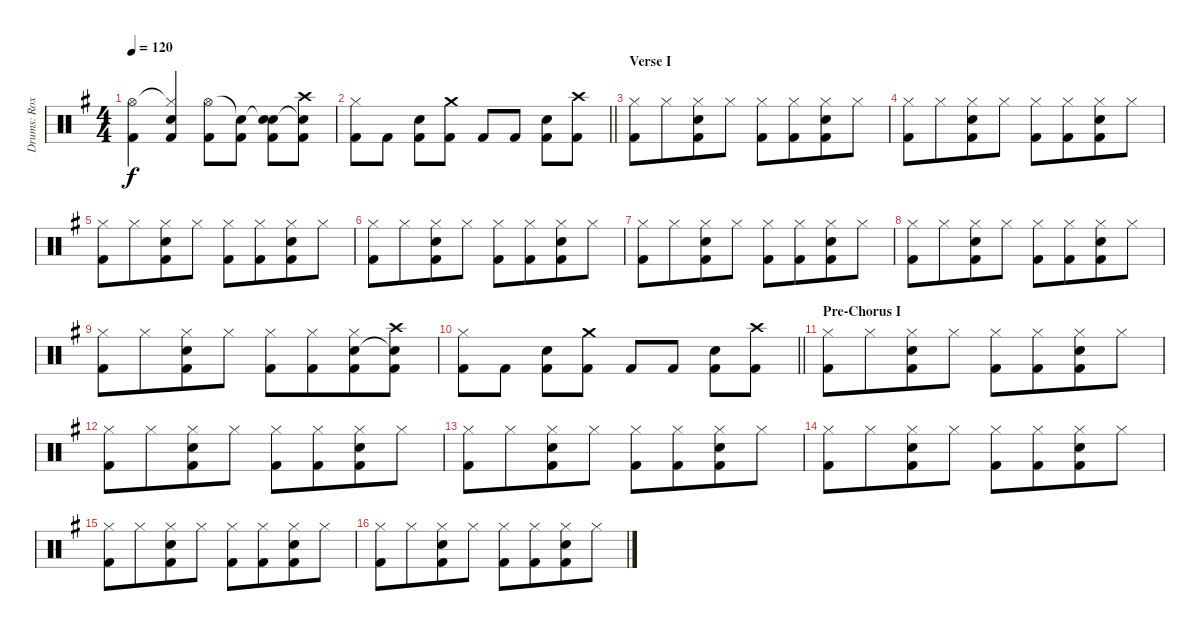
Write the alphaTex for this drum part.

\track ("Drums: Roxy" "Drums: Rox") {instrument percussion}
\staff {score}
\articulation defaults
\ts (4 4)
\tempo 120
\clef neutral
\ks g
("Hi-Hat (open)" "Kick (hit) 2").4{dy f} ("Hi-Hat (closed)"{t} "Snare (hit) 2" "Kick (hit) 2").4 ("Hi-Hat (open)" "Kick (hit) 2").8 ("Snare (hit)"{t} "Kick (hit) 2").8 ("Snare (hit)"{t} "Snare (hit) 2" "Kick (hit) 2").8 ("Crash high (hit)" "Snare (hit)"{t} "Kick (hit) 2").8 |
\barLineRight lightlight
("Hi-Hat (closed)" "Kick (hit) 2").8 "Kick (hit) 2".8 ("Snare (hit) 2" "Kick (hit) 2").8 ("Crash medium (hit)" "Kick (hit) 2").8 "Kick (hit) 2".8 "Kick (hit) 2".8 ("Snare (hit) 2" "Kick (hit) 2").8 ("Crash high (hit)" "Kick (hit) 2").8 |
\section ("" "Verse I")
("Hi-Hat (closed)" "Kick (hit) 2").8 "Hi-Hat (closed)".8{beam merge} ("Hi-Hat (closed)" "Snare (hit) 2" "Kick (hit) 2").8 "Hi-Hat (closed)".8 ("Hi-Hat (closed)" "Kick (hit) 2").8 ("Hi-Hat (closed)" "Kick (hit) 2").8{beam merge} ("Hi-Hat (closed)" "Snare (hit) 2" "Kick (hit) 2").8 "Hi-Hat (closed)".8 |
("Hi-Hat (closed)" "Kick (hit) 2").8 "Hi-Hat (closed)".8{beam merge} ("Hi-Hat (closed)" "Snare (hit) 2" "Kick (hit) 2").8 "Hi-Hat (closed)".8 ("Hi-Hat (closed)" "Kick (hit) 2").8 ("Hi-Hat (closed)" "Kick (hit) 2").8{beam merge} ("Hi-Hat (closed)" "Snare (hit) 2" "Kick (hit) 2").8 "Hi-Hat (closed)".8 |
("Hi-Hat (closed)" "Kick (hit) 2").8 "Hi-Hat (closed)".8{beam merge} ("Hi-Hat (closed)" "Snare (hit) 2" "Kick (hit) 2").8 "Hi-Hat (closed)".8 ("Hi-Hat (closed)" "Kick (hit) 2").8 ("Hi-Hat (closed)" "Kick (hit) 2").8{beam merge} ("Hi-Hat (closed)" "Snare (hit) 2" "Kick (hit) 2").8 "Hi-Hat (closed)".8 |
("Hi-Hat (closed)" "Kick (hit) 2").8 "Hi-Hat (closed)".8{beam merge} ("Hi-Hat (closed)" "Snare (hit) 2" "Kick (hit) 2").8 "Hi-Hat (closed)".8 ("Hi-Hat (closed)" "Kick (hit) 2").8 ("Hi-Hat (closed)" "Kick (hit) 2").8{beam merge} ("Hi-Hat (closed)" "Snare (hit) 2" "Kick (hit) 2").8 "Hi-Hat (closed)".8 |
("Hi-Hat (closed)" "Kick (hit) 2").8 "Hi-Hat (closed)".8{beam merge} ("Hi-Hat (closed)" "Snare (hit) 2" "Kick (hit) 2").8 "Hi-Hat (closed)".8 ("Hi-Hat (closed)" "Kick (hit) 2").8 ("Hi-Hat (closed)" "Kick (hit) 2").8{beam merge} ("Hi-Hat (closed)" "Snare (hit) 2" "Kick (hit) 2").8 "Hi-Hat (closed)".8 |
("Hi-Hat (closed)" "Kick (hit) 2").8 "Hi-Hat (closed)".8{beam merge} ("Hi-Hat (closed)" "Snare (hit) 2" "Kick (hit) 2").8 "Hi-Hat (closed)".8 ("Hi-Hat (closed)" "Kick (hit) 2").8 ("Hi-Hat (closed)" "Kick (hit) 2").8{beam merge} ("Hi-Hat (closed)" "Snare (hit) 2" "Kick (hit) 2").8 "Hi-Hat (closed)".8 |
("Hi-Hat (closed)" "Kick (hit) 2").8 "Hi-Hat (closed)".8{beam merge} ("Hi-Hat (closed)" "Snare (hit) 2" "Kick (hit) 2").8 "Hi-Hat (closed)".8 ("Hi-Hat (closed)" "Kick (hit) 2").8 ("Hi-Hat (closed)" "Kick (hit) 2").8{beam merge} ("Hi-Hat (closed)" "Snare (hit) 2" "Kick (hit) 2").8 ("Crash high (hit)" "Snare (hit)"{t} "Kick (hit) 2").8 |
\barLineRight lightlight
("Hi-Hat (closed)" "Kick (hit) 2").8 "Kick (hit) 2".8 ("Snare (hit) 2" "Kick (hit) 2").8 ("Crash medium (hit)" "Kick (hit) 2").8 "Kick (hit) 2".8 "Kick (hit) 2".8 ("Snare (hit) 2" "Kick (hit) 2").8 ("Crash high (hit)" "Kick (hit) 2").8 |
\section ("" "Pre-Chorus I")
("Hi-Hat (closed)" "Kick (hit) 2").8 "Hi-Hat (closed)".8{beam merge} ("Hi-Hat (closed)" "Snare (hit) 2" "Kick (hit) 2").8 "Hi-Hat (closed)".8 ("Hi-Hat (closed)" "Kick (hit) 2").8 ("Hi-Hat (closed)" "Kick (hit) 2").8{beam merge} ("Hi-Hat (closed)" "Snare (hit) 2" "Kick (hit) 2").8 "Hi-Hat (closed)".8 |
("Hi-Hat (closed)" "Kick (hit) 2").8 "Hi-Hat (closed)".8{beam merge} ("Hi-Hat (closed)" "Snare (hit) 2" "Kick (hit) 2").8 "Hi-Hat (closed)".8 ("Hi-Hat (closed)" "Kick (hit) 2").8 ("Hi-Hat (closed)" "Kick (hit) 2").8{beam merge} ("Hi-Hat (closed)" "Snare (hit) 2" "Kick (hit) 2").8 "Hi-Hat (closed)".8 |
("Hi-Hat (closed)" "Kick (hit) 2").8 "Hi-Hat (closed)".8{beam merge} ("Hi-Hat (closed)" "Snare (hit) 2" "Kick (hit) 2").8 "Hi-Hat (closed)".8 ("Hi-Hat (closed)" "Kick (hit) 2").8 ("Hi-Hat (closed)" "Kick (hit) 2").8{beam merge} ("Hi-Hat (closed)" "Snare (hit) 2" "Kick (hit) 2").8 "Hi-Hat (closed)".8 |
("Hi-Hat (closed)" "Kick (hit) 2").8 "Hi-Hat (closed)".8{beam merge} ("Hi-Hat (closed)" "Snare (hit) 2" "Kick (hit) 2").8 "Hi-Hat (closed)".8 ("Hi-Hat (closed)" "Kick (hit) 2").8 ("Hi-Hat (closed)" "Kick (hit) 2").8{beam merge} ("Hi-Hat (closed)" "Snare (hit) 2" "Kick (hit) 2").8 "Hi-Hat (closed)".8 |
("Hi-Hat (closed)" "Kick (hit) 2").8 "Hi-Hat (closed)".8{beam merge} ("Hi-Hat (closed)" "Snare (hit) 2" "Kick (hit) 2").8 "Hi-Hat (closed)".8 ("Hi-Hat (closed)" "Kick (hit) 2").8 ("Hi-Hat (closed)" "Kick (hit) 2").8{beam merge} ("Hi-Hat (closed)" "Snare (hit) 2" "Kick (hit) 2").8 "Hi-Hat (closed)".8 |
("Hi-Hat (closed)" "Kick (hit) 2").8 "Hi-Hat (closed)".8{beam merge} ("Hi-Hat (closed)" "Snare (hit) 2" "Kick (hit) 2").8 "Hi-Hat (closed)".8 ("Hi-Hat (closed)" "Kick (hit) 2").8 ("Hi-Hat (closed)" "Kick (hit) 2").8{beam merge} ("Hi-Hat (closed)" "Snare (hit) 2" "Kick (hit) 2").8 "Hi-Hat (closed)".8
